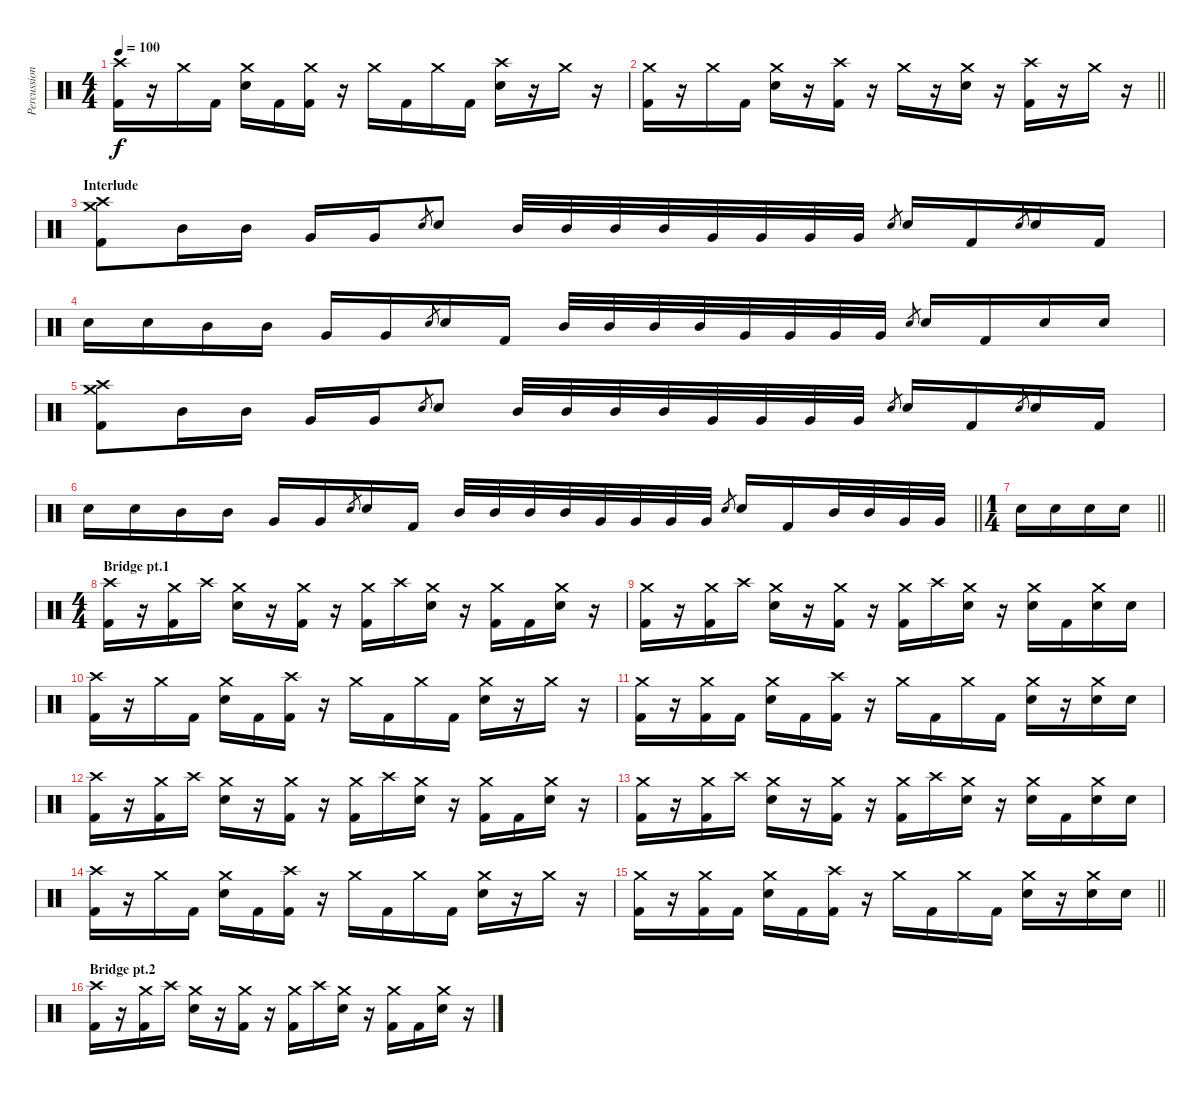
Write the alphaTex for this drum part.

\track ("Percussion" "Percussion") {instrument percussion}
\staff {score}
\articulation defaults
\ts (4 4)
\tempo 100
\clef neutral
\ks c
("Crash high (hit)" "Kick (hit) 2").16{dy f} r.16 "Crash medium (hit)".16 "Kick (hit) 2".16 ("Crash medium (hit)" "Electric Snare (hit)").16 "Kick (hit) 2".16 ("Crash medium (hit)" "Kick (hit) 2").16 r.16 "Crash medium (hit)".16 "Kick (hit) 2".16 "Crash medium (hit)".16 "Kick (hit) 2".16 ("Crash high (hit)" "Electric Snare (hit)").16 r.16 "Crash medium (hit)".16 r.16 |
\barLineRight lightlight
("Crash medium (hit)" "Kick (hit) 2").16 r.16 "Crash medium (hit)".16 "Kick (hit) 2".16 ("Crash medium (hit)" "Electric Snare (hit)").16 r.16 ("Crash high (hit)" "Kick (hit) 2").16 r.16 "Crash medium (hit)".16 r.16 ("Crash medium (hit)" "Electric Snare (hit)").16 r.16 ("Crash high (hit)" "Kick (hit) 2").16 r.16 "Crash medium (hit)".16 r.16 |
\section ("" "Interlude")
("Crash high (hit)" "Crash medium (hit)" "Kick (hit) 2").8 "Mid Tom (hit)".16 "Mid Tom (hit)".16 "Very Low Tom (hit)".16 "Very Low Tom (hit)".16 "Electric Snare (hit)".8{gr} "Electric Snare (hit)".8 "Mid Tom (hit)".32 "Mid Tom (hit)".32 "Mid Tom (hit)".32 "Mid Tom (hit)".32 "Very Low Tom (hit)".32 "Very Low Tom (hit)".32 "Very Low Tom (hit)".32 "Very Low Tom (hit)".32 "Electric Snare (hit)".8{gr} "Electric Snare (hit)".16 "Kick (hit) 2".16 "Electric Snare (hit)".8{gr} "Electric Snare (hit)".16 "Kick (hit) 2".16 |
"Electric Snare (hit)".16 "Electric Snare (hit)".16 "Mid Tom (hit)".16 "Mid Tom (hit)".16 "Very Low Tom (hit)".16 "Very Low Tom (hit)".16 "Electric Snare (hit)".8{gr} "Electric Snare (hit)".16 "Kick (hit) 2".16 "Mid Tom (hit)".32 "Mid Tom (hit)".32 "Mid Tom (hit)".32 "Mid Tom (hit)".32 "Very Low Tom (hit)".32 "Very Low Tom (hit)".32 "Very Low Tom (hit)".32 "Very Low Tom (hit)".32 "Electric Snare (hit)".8{gr} "Electric Snare (hit)".16 "Kick (hit) 2".16 "Electric Snare (hit)".16 "Electric Snare (hit)".16 |
("Crash high (hit)" "Crash medium (hit)" "Kick (hit) 2").8 "Mid Tom (hit)".16 "Mid Tom (hit)".16 "Very Low Tom (hit)".16 "Very Low Tom (hit)".16 "Electric Snare (hit)".8{gr} "Electric Snare (hit)".8 "Mid Tom (hit)".32 "Mid Tom (hit)".32 "Mid Tom (hit)".32 "Mid Tom (hit)".32 "Very Low Tom (hit)".32 "Very Low Tom (hit)".32 "Very Low Tom (hit)".32 "Very Low Tom (hit)".32 "Electric Snare (hit)".8{gr} "Electric Snare (hit)".16 "Kick (hit) 2".16 "Electric Snare (hit)".8{gr} "Electric Snare (hit)".16 "Kick (hit) 2".16 |
\barLineRight lightlight "Electric Snare (hit)".16 "Electric Snare (hit)".16 "Mid Tom (hit)".16 "Mid Tom (hit)".16 "Very Low Tom (hit)".16 "Very Low Tom (hit)".16 "Electric Snare (hit)".8{gr} "Electric Snare (hit)".16 "Kick (hit) 2".16 "Mid Tom (hit)".32 "Mid Tom (hit)".32 "Mid Tom (hit)".32 "Mid Tom (hit)".32 "Very Low Tom (hit)".32 "Very Low Tom (hit)".32 "Very Low Tom (hit)".32 "Very Low Tom (hit)".32 "Electric Snare (hit)".8{gr} "Electric Snare (hit)".16 "Kick (hit) 2".16 "Mid Tom (hit)".32 "Mid Tom (hit)".32 "Very Low Tom (hit)".32 "Very Low Tom (hit)".32
|
\ts (1 4)
\barLineRight lightlight "Electric Snare (hit)".16 "Electric Snare (hit)".16 "Electric Snare (hit)".16 "Electric Snare (hit)".16
|
\ts (4 4)
\section ("" "Bridge pt.1")
("Crash high (hit)" "Kick (hit) 2").16 r.16 ("Crash medium (hit)" "Kick (hit) 2").16 "Crash high (hit)".16 ("Crash medium (hit)" "Electric Snare (hit)").16 r.16 ("Crash medium (hit)" "Kick (hit) 2").16 r.16 ("Crash medium (hit)" "Kick (hit) 2").16 "Crash high (hit)".16 ("Crash medium (hit)" "Electric Snare (hit)").16 r.16 ("Crash medium (hit)" "Kick (hit) 2").16 "Kick (hit) 2".16 ("Crash medium (hit)" "Electric Snare (hit)").16 r.16 |
("Crash medium (hit)" "Kick (hit) 2").16 r.16 ("Crash medium (hit)" "Kick (hit) 2").16 "Crash high (hit)".16 ("Crash medium (hit)" "Electric Snare (hit)").16 r.16 ("Crash medium (hit)" "Kick (hit) 2").16 r.16 ("Crash medium (hit)" "Kick (hit) 2").16 "Crash high (hit)".16 ("Crash medium (hit)" "Electric Snare (hit)").16 r.16 ("Crash medium (hit)" "Electric Snare (hit)").16 "Kick (hit) 2".16 ("Crash medium (hit)" "Electric Snare (hit)").16 "Electric Snare (hit)".16 |
("Crash high (hit)" "Kick (hit) 2").16 r.16 "Crash medium (hit)".16 "Kick (hit) 2".16 ("Crash medium (hit)" "Electric Snare (hit)").16 "Kick (hit) 2".16 ("Crash high (hit)" "Kick (hit) 2").16 r.16 "Crash medium (hit)".16 "Kick (hit) 2".16 "Crash medium (hit)".16 "Kick (hit) 2".16 ("Crash medium (hit)" "Electric Snare (hit)").16 r.16 "Crash medium (hit)".16 r.16 |
("Crash medium (hit)" "Kick (hit) 2").16 r.16 ("Crash medium (hit)" "Kick (hit) 2").16 "Kick (hit) 2".16 ("Crash medium (hit)" "Electric Snare (hit)").16 "Kick (hit) 2".16 ("Crash high (hit)" "Kick (hit) 2").16 r.16 "Crash medium (hit)".16 "Kick (hit) 2".16 "Crash medium (hit)".16 "Kick (hit) 2".16 ("Crash medium (hit)" "Electric Snare (hit)").16 r.16 ("Crash medium (hit)" "Electric Snare (hit)").16 "Electric Snare (hit)".16 |
("Crash high (hit)" "Kick (hit) 2").16 r.16 ("Crash medium (hit)" "Kick (hit) 2").16 "Crash high (hit)".16 ("Crash medium (hit)" "Electric Snare (hit)").16 r.16 ("Crash medium (hit)" "Kick (hit) 2").16 r.16 ("Crash medium (hit)" "Kick (hit) 2").16 "Crash high (hit)".16 ("Crash medium (hit)" "Electric Snare (hit)").16 r.16 ("Crash medium (hit)" "Kick (hit) 2").16 "Kick (hit) 2".16 ("Crash medium (hit)" "Electric Snare (hit)").16 r.16 |
("Crash medium (hit)" "Kick (hit) 2").16 r.16 ("Crash medium (hit)" "Kick (hit) 2").16 "Crash high (hit)".16 ("Crash medium (hit)" "Electric Snare (hit)").16 r.16 ("Crash medium (hit)" "Kick (hit) 2").16 r.16 ("Crash medium (hit)" "Kick (hit) 2").16 "Crash high (hit)".16 ("Crash medium (hit)" "Electric Snare (hit)").16 r.16 ("Crash medium (hit)" "Electric Snare (hit)").16 "Kick (hit) 2".16 ("Crash medium (hit)" "Electric Snare (hit)").16 "Electric Snare (hit)".16 |
("Crash high (hit)" "Kick (hit) 2").16 r.16 "Crash medium (hit)".16 "Kick (hit) 2".16 ("Crash medium (hit)" "Electric Snare (hit)").16 "Kick (hit) 2".16 ("Crash high (hit)" "Kick (hit) 2").16 r.16 "Crash medium (hit)".16 "Kick (hit) 2".16 "Crash medium (hit)".16 "Kick (hit) 2".16 ("Crash medium (hit)" "Electric Snare (hit)").16 r.16 "Crash medium (hit)".16 r.16 |
\barLineRight lightlight
("Crash medium (hit)" "Kick (hit) 2").16 r.16 ("Crash medium (hit)" "Kick (hit) 2").16 "Kick (hit) 2".16 ("Crash medium (hit)" "Electric Snare (hit)").16 "Kick (hit) 2".16 ("Crash high (hit)" "Kick (hit) 2").16 r.16 "Crash medium (hit)".16 "Kick (hit) 2".16 "Crash medium (hit)".16 "Kick (hit) 2".16 ("Crash medium (hit)" "Electric Snare (hit)").16 r.16 ("Crash medium (hit)" "Electric Snare (hit)").16 "Electric Snare (hit)".16 |
\section ("" "Bridge pt.2")
("Crash high (hit)" "Kick (hit) 2").16 r.16 ("Crash medium (hit)" "Kick (hit) 2").16 "Crash high (hit)".16 ("Crash medium (hit)" "Electric Snare (hit)").16 r.16 ("Crash medium (hit)" "Kick (hit) 2").16 r.16 ("Crash medium (hit)" "Kick (hit) 2").16 "Crash high (hit)".16 ("Crash medium (hit)" "Electric Snare (hit)").16 r.16 ("Crash medium (hit)" "Kick (hit) 2").16 "Kick (hit) 2".16 ("Crash medium (hit)" "Electric Snare (hit)").16 r.16
